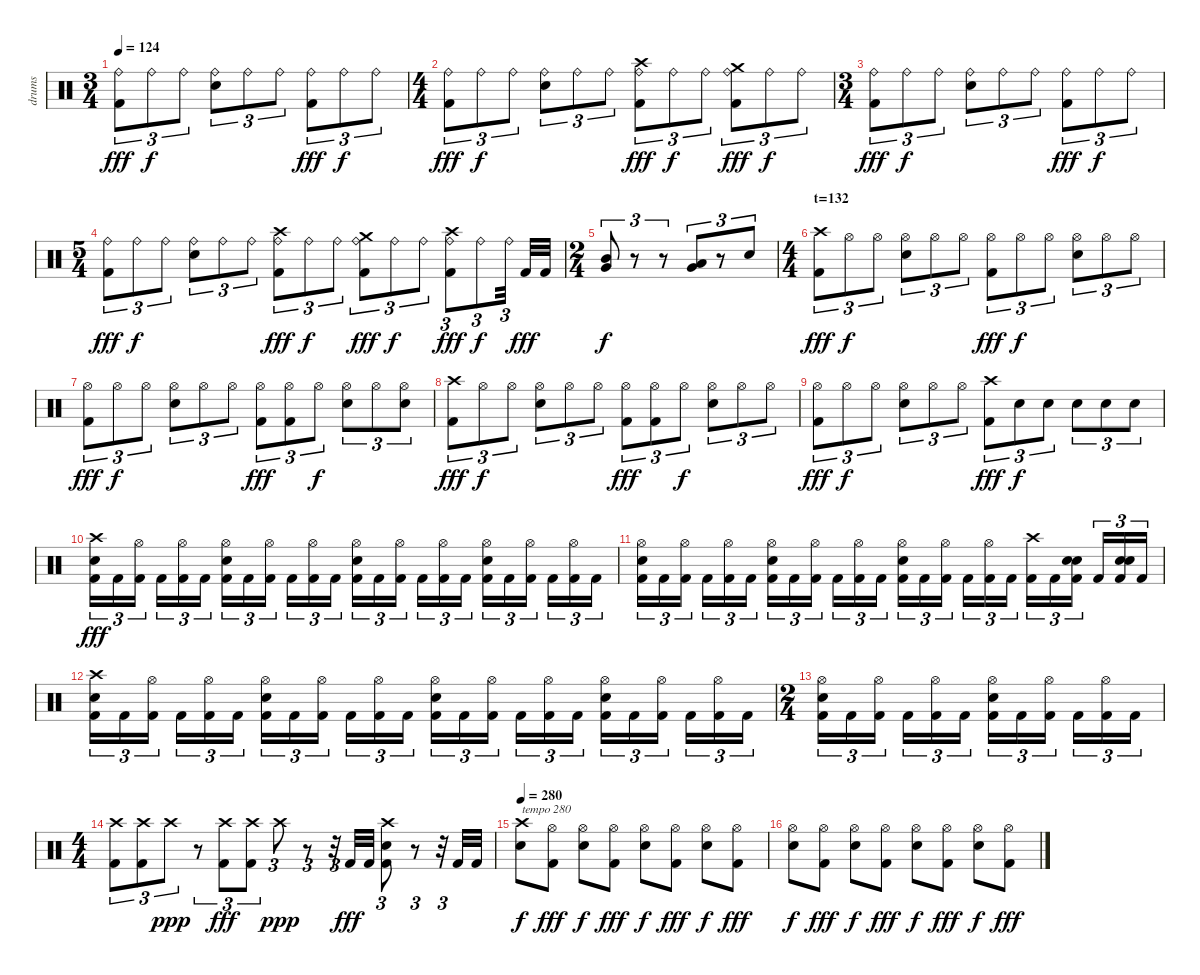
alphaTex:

\track ("drums" "drums") {instrument percussion}
\staff {score}
\articulation defaults
\ts (3 4)
\tempo 124
\clef neutral
\ks c
("Ride (bell)" "Kick (hit) 2").8{tu (3 2) dy fff} "Ride (bell)".8{tu (3 2) dy f} "Ride (bell)".8{tu (3 2)} ("Ride (bell)" "Snare (hit) 2").8{tu (3 2)} "Ride (bell)".8{tu (3 2)} "Ride (bell)".8{tu (3 2)} ("Ride (bell)" "Kick (hit) 2").8{tu (3 2) dy fff} "Ride (bell)".8{tu (3 2) dy f} "Ride (bell)".8{tu (3 2)} |
\ts (4 4)
("Ride (bell)" "Kick (hit) 2").8{tu (3 2) dy fff} "Ride (bell)".8{tu (3 2) dy f} "Ride (bell)".8{tu (3 2)} ("Ride (bell)" "Snare (hit) 2").8{tu (3 2)} "Ride (bell)".8{tu (3 2)} "Ride (bell)".8{tu (3 2)} ("Crash high (hit)" "Ride (bell)" "Kick (hit) 2").8{tu (3 2) dy fff} "Ride (bell)".8{tu (3 2) dy f} "Ride (bell)".8{tu (3 2)} ("Crash medium (hit)" "Ride (bell)" "Kick (hit) 2").8{tu (3 2) dy fff} "Ride (bell)".8{tu (3 2) dy f} "Ride (bell)".8{tu (3 2)} |
\ts (3 4)
("Ride (bell)" "Kick (hit) 2").8{tu (3 2) dy fff} "Ride (bell)".8{tu (3 2) dy f} "Ride (bell)".8{tu (3 2)} ("Ride (bell)" "Snare (hit) 2").8{tu (3 2)} "Ride (bell)".8{tu (3 2)} "Ride (bell)".8{tu (3 2)} ("Ride (bell)" "Kick (hit) 2").8{tu (3 2) dy fff} "Ride (bell)".8{tu (3 2) dy f} "Ride (bell)".8{tu (3 2)} |
\ts (5 4)
("Ride (bell)" "Kick (hit) 2").8{tu (3 2) dy fff} "Ride (bell)".8{tu (3 2) dy f} "Ride (bell)".8{tu (3 2)} ("Ride (bell)" "Snare (hit) 2").8{tu (3 2)} "Ride (bell)".8{tu (3 2)} "Ride (bell)".8{tu (3 2)} ("Crash high (hit)" "Ride (bell)" "Kick (hit) 2").8{tu (3 2) dy fff} "Ride (bell)".8{tu (3 2) dy f} "Ride (bell)".8{tu (3 2)} ("Crash medium (hit)" "Ride (bell)" "Kick (hit) 2").8{tu (3 2) dy fff} "Ride (bell)".8{tu (3 2) dy f} "Ride (bell)".8{tu (3 2)} ("Crash high (hit)" "Ride (bell)" "Kick (hit) 2").8{tu (3 2) dy fff} "Ride (bell)".8{tu (3 2) dy f} "Ride (bell)".32{tu (3 2)} "Kick (hit) 2".32{dy fff} "Kick (hit) 2".32 |
\ts (2 4)
("Mid Tom (hit)" "Very Low Tom (hit)").8{tu (3 2) dy f} r.8{tu (3 2)} r.8{tu (3 2)} ("Low Tom (hit)" "Very Low Tom (hit)").8{tu (3 2)} r.8{tu (3 2)} "Snare (hit) 2".8{tu (3 2)} |
\ts (4 4)
\section ("" "t=132")
("Crash high (hit)" "Kick (hit) 2").8{tu (3 2) dy fff} "Hi-Hat (open)".8{tu (3 2) dy f} "Hi-Hat (open)".8{tu (3 2)} ("Hi-Hat (open)" "Snare (hit) 2").8{tu (3 2)} "Hi-Hat (open)".8{tu (3 2)} "Hi-Hat (open)".8{tu (3 2)} ("Hi-Hat (open)" "Kick (hit) 2").8{tu (3 2) dy fff} "Hi-Hat (open)".8{tu (3 2) dy f} "Hi-Hat (open)".8{tu (3 2)} ("Hi-Hat (open)" "Snare (hit) 2").8{tu (3 2)} "Hi-Hat (open)".8{tu (3 2)} "Hi-Hat (open)".8{tu (3 2)} |
("Hi-Hat (open)" "Kick (hit) 2").8{tu (3 2) dy fff} "Hi-Hat (open)".8{tu (3 2) dy f} "Hi-Hat (open)".8{tu (3 2)} ("Hi-Hat (open)" "Snare (hit) 2").8{tu (3 2)} "Hi-Hat (open)".8{tu (3 2)} "Hi-Hat (open)".8{tu (3 2)} ("Hi-Hat (open)" "Kick (hit) 2").8{tu (3 2) dy fff} ("Hi-Hat (open)" "Kick (hit) 2").8{tu (3 2)} "Hi-Hat (open)".8{tu (3 2) dy f} ("Hi-Hat (open)" "Snare (hit) 2").8{tu (3 2)} "Hi-Hat (open)".8{tu (3 2)} ("Hi-Hat (open)" "Snare (hit) 2").8{tu (3 2)} |
("Crash high (hit)" "Kick (hit) 2").8{tu (3 2) dy fff} "Hi-Hat (open)".8{tu (3 2) dy f} "Hi-Hat (open)".8{tu (3 2)} ("Hi-Hat (open)" "Snare (hit) 2").8{tu (3 2)} "Hi-Hat (open)".8{tu (3 2)} "Hi-Hat (open)".8{tu (3 2)} ("Hi-Hat (open)" "Kick (hit) 2").8{tu (3 2) dy fff} ("Hi-Hat (open)" "Kick (hit) 2").8{tu (3 2)} "Hi-Hat (open)".8{tu (3 2) dy f} ("Hi-Hat (open)" "Snare (hit) 2").8{tu (3 2)} "Hi-Hat (open)".8{tu (3 2)} "Hi-Hat (open)".8{tu (3 2)} |
("Hi-Hat (open)" "Kick (hit) 2").8{tu (3 2) dy fff} "Hi-Hat (open)".8{tu (3 2) dy f} "Hi-Hat (open)".8{tu (3 2)} ("Hi-Hat (open)" "Snare (hit) 2").8{tu (3 2)} "Hi-Hat (open)".8{tu (3 2)} "Hi-Hat (open)".8{tu (3 2)} ("Crash high (hit)" "Kick (hit) 2").8{tu (3 2) dy fff} "Snare (hit) 2".8{tu (3 2) dy f} "Snare (hit) 2".8{tu (3 2)} "Snare (hit) 2".8{tu (3 2)} "Snare (hit) 2".8{tu (3 2)} "Snare (hit) 2".8{tu (3 2)} |
("Crash high (hit)" "Snare (hit) 2" "Kick (hit) 2").16{tu (3 2) dy fff} "Kick (hit) 2".16{tu (3 2)} ("Hi-Hat (open)" "Kick (hit) 2").16{tu (3 2)} "Kick (hit) 2".16{tu (3 2)} ("Hi-Hat (open)" "Kick (hit) 2").16{tu (3 2)} "Kick (hit) 2".16{tu (3 2)} ("Hi-Hat (open)" "Snare (hit) 2" "Kick (hit) 2").16{tu (3 2)} "Kick (hit) 2".16{tu (3 2)} ("Hi-Hat (open)" "Kick (hit) 2").16{tu (3 2)} "Kick (hit) 2".16{tu (3 2)} ("Hi-Hat (open)" "Kick (hit) 2").16{tu (3 2)} "Kick (hit) 2".16{tu (3 2)} ("Hi-Hat (open)" "Snare (hit) 2" "Kick (hit) 2").16{tu (3 2)} "Kick (hit) 2".16{tu (3 2)} ("Hi-Hat (open)" "Kick (hit) 2").16{tu (3 2)} "Kick (hit) 2".16{tu (3 2)} ("Hi-Hat (open)" "Kick (hit) 2").16{tu (3 2)} "Kick (hit) 2".16{tu (3 2)} ("Hi-Hat (open)" "Snare (hit) 2" "Kick (hit) 2").16{tu (3 2)} "Kick (hit) 2".16{tu (3 2)} ("Hi-Hat (open)" "Kick (hit) 2").16{tu (3 2)} "Kick (hit) 2".16{tu (3 2)} ("Hi-Hat (open)" "Kick (hit) 2").16{tu (3 2)} "Kick (hit) 2".16{tu (3 2)} |
("Hi-Hat (open)" "Snare (hit) 2" "Kick (hit) 2").16{tu (3 2)} "Kick (hit) 2".16{tu (3 2)} ("Hi-Hat (open)" "Kick (hit) 2").16{tu (3 2)} "Kick (hit) 2".16{tu (3 2)} ("Hi-Hat (open)" "Kick (hit) 2").16{tu (3 2)} "Kick (hit) 2".16{tu (3 2)} ("Hi-Hat (open)" "Snare (hit) 2" "Kick (hit) 2").16{tu (3 2)} "Kick (hit) 2".16{tu (3 2)} ("Hi-Hat (open)" "Kick (hit) 2").16{tu (3 2)} "Kick (hit) 2".16{tu (3 2)} ("Hi-Hat (open)" "Kick (hit) 2").16{tu (3 2)} "Kick (hit) 2".16{tu (3 2)} ("Hi-Hat (open)" "Snare (hit) 2" "Kick (hit) 2").16{tu (3 2)} "Kick (hit) 2".16{tu (3 2)} ("Hi-Hat (open)" "Kick (hit) 2").16{tu (3 2)} "Kick (hit) 2".16{tu (3 2)} ("Hi-Hat (open)" "Kick (hit) 2").16{tu (3 2)} "Kick (hit) 2".16{tu (3 2)} ("Crash high (hit)" "Kick (hit) 2").16{tu (3 2)} "Kick (hit) 2".16{tu (3 2)} ("Snare (hit) 2" "Snare (hit) 2" "Kick (hit) 2").16{tu (3 2)} "Kick (hit) 2".16{tu (3 2)} ("Snare (hit) 2" "Snare (hit) 2" "Kick (hit) 2").16{tu (3 2)} "Kick (hit) 2".16{tu (3 2)} |
("Crash high (hit)" "Snare (hit) 2" "Kick (hit) 2").16{tu (3 2)} "Kick (hit) 2".16{tu (3 2)} ("Hi-Hat (open)" "Kick (hit) 2").16{tu (3 2)} "Kick (hit) 2".16{tu (3 2)} ("Hi-Hat (open)" "Kick (hit) 2").16{tu (3 2)} "Kick (hit) 2".16{tu (3 2)} ("Hi-Hat (open)" "Snare (hit) 2" "Kick (hit) 2").16{tu (3 2)} "Kick (hit) 2".16{tu (3 2)} ("Hi-Hat (open)" "Kick (hit) 2").16{tu (3 2)} "Kick (hit) 2".16{tu (3 2)} ("Hi-Hat (open)" "Kick (hit) 2").16{tu (3 2)} "Kick (hit) 2".16{tu (3 2)} ("Hi-Hat (open)" "Snare (hit) 2" "Kick (hit) 2").16{tu (3 2)} "Kick (hit) 2".16{tu (3 2)} ("Hi-Hat (open)" "Kick (hit) 2").16{tu (3 2)} "Kick (hit) 2".16{tu (3 2)} ("Hi-Hat (open)" "Kick (hit) 2").16{tu (3 2)} "Kick (hit) 2".16{tu (3 2)} ("Hi-Hat (open)" "Snare (hit) 2" "Kick (hit) 2").16{tu (3 2)} "Kick (hit) 2".16{tu (3 2)} ("Hi-Hat (open)" "Kick (hit) 2").16{tu (3 2)} "Kick (hit) 2".16{tu (3 2)} ("Hi-Hat (open)" "Kick (hit) 2").16{tu (3 2)} "Kick (hit) 2".16{tu (3 2)} |
\ts (2 4)
("Hi-Hat (open)" "Snare (hit) 2" "Kick (hit) 2").16{tu (3 2)} "Kick (hit) 2".16{tu (3 2)} ("Hi-Hat (open)" "Kick (hit) 2").16{tu (3 2)} "Kick (hit) 2".16{tu (3 2)} ("Hi-Hat (open)" "Kick (hit) 2").16{tu (3 2)} "Kick (hit) 2".16{tu (3 2)} ("Hi-Hat (open)" "Snare (hit) 2" "Kick (hit) 2").16{tu (3 2)} "Kick (hit) 2".16{tu (3 2)} ("Hi-Hat (open)" "Kick (hit) 2").16{tu (3 2)} "Kick (hit) 2".16{tu (3 2)} ("Hi-Hat (open)" "Kick (hit) 2").16{tu (3 2)} "Kick (hit) 2".16{tu (3 2)} |
\ts (4 4)
("Crash high (hit)" "Kick (hit) 2").8{tu (3 2)} ("Crash high (hit)" "Kick (hit) 2").8{tu (3 2)} "Crash high (hit)".8{tu (3 2) dy ppp} r.8{tu (3 2)} ("Crash high (hit)" "Kick (hit) 2").8{tu (3 2) dy fff} ("Crash high (hit)" "Kick (hit) 2").8{tu (3 2)} "Crash high (hit)".8{tu (3 2) dy ppp} r.8{tu (3 2)} r.32{tu (3 2)} "Kick (hit) 2".32{dy fff} "Kick (hit) 2".32 ("Crash high (hit)" "Snare (hit) 2" "Kick (hit) 2").8{tu (3 2)} r.8{tu (3 2)} r.32{tu (3 2)} "Kick (hit) 2".32 "Kick (hit) 2".32 |
\tempo 280
("Crash high (hit)" "Snare (hit) 2").8{txt "tempo 280" dy f} ("Hi-Hat (open)" "Kick (hit) 2").8{dy fff} ("Hi-Hat (open)" "Snare (hit) 2").8{dy f} ("Hi-Hat (open)" "Kick (hit) 2").8{dy fff} ("Hi-Hat (open)" "Snare (hit) 2").8{dy f} ("Hi-Hat (open)" "Kick (hit) 2").8{dy fff} ("Hi-Hat (open)" "Snare (hit) 2").8{dy f} ("Hi-Hat (open)" "Kick (hit) 2").8{dy fff} |
("Hi-Hat (open)" "Snare (hit) 2").8{dy f} ("Hi-Hat (open)" "Kick (hit) 2").8{dy fff} ("Hi-Hat (open)" "Snare (hit) 2").8{dy f} ("Hi-Hat (open)" "Kick (hit) 2").8{dy fff} ("Hi-Hat (open)" "Snare (hit) 2").8{dy f} ("Hi-Hat (open)" "Kick (hit) 2").8{dy fff} ("Hi-Hat (open)" "Snare (hit) 2").8{dy f} ("Hi-Hat (open)" "Kick (hit) 2").8{dy fff}
